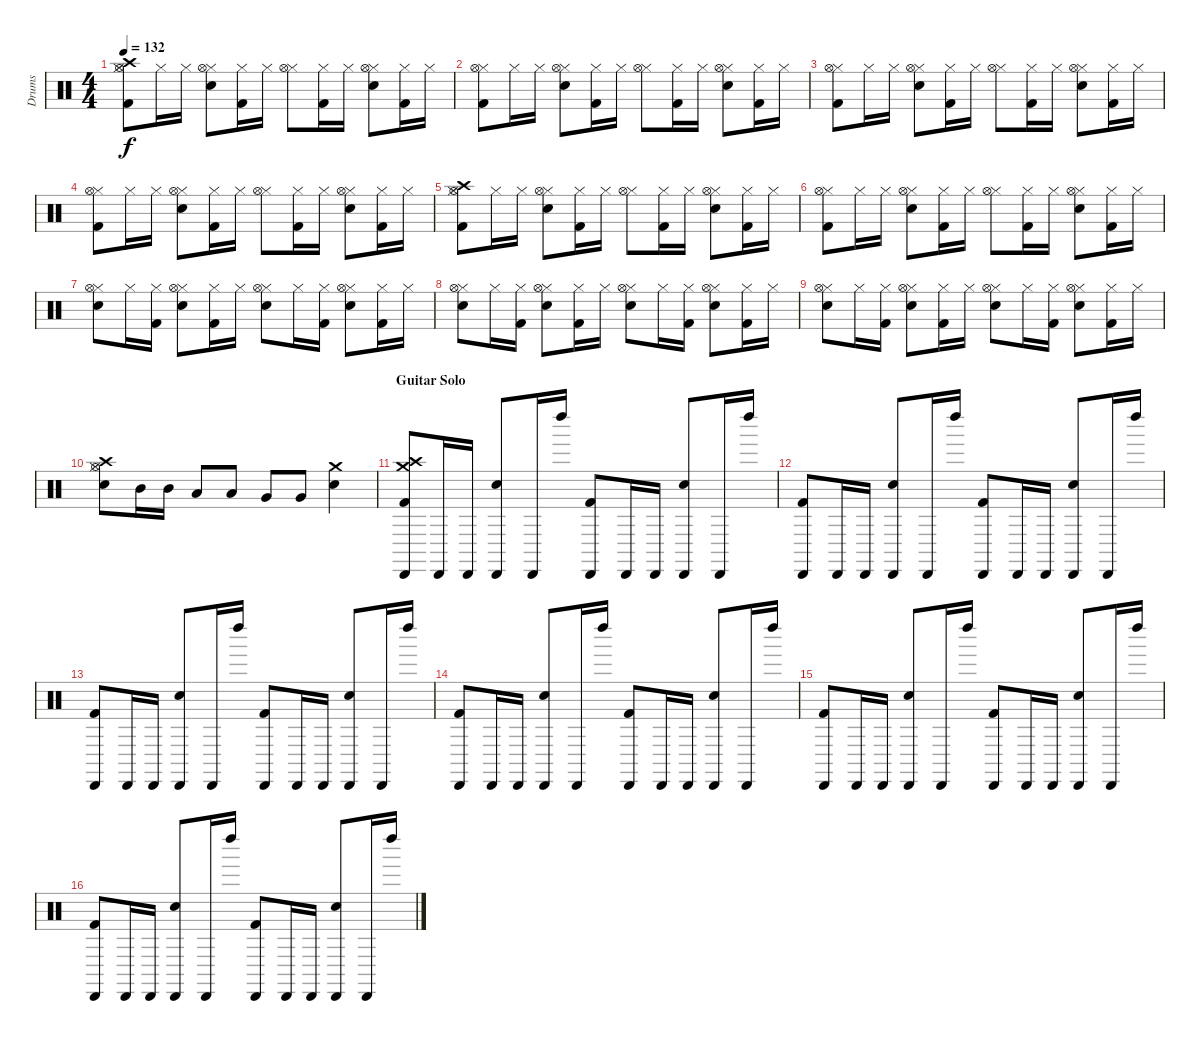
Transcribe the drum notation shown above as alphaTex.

\track ("Drums" "Drums") {instrument percussion}
\staff {score}
\articulation defaults
\ts (4 4)
\tempo 132
\clef neutral
\ks c
("Kick (hit) 2" "Hi-Hat (closed)" "Hi-Hat (open)" "Crash high (hit)").8{dy f} "Hi-Hat (closed)".16 "Hi-Hat (closed)".16 ("Snare (hit) 2" "Hi-Hat (closed)" "Hi-Hat (open)").8 ("Kick (hit) 2" "Hi-Hat (closed)").16 "Hi-Hat (closed)".16 ("Hi-Hat (closed)" "Hi-Hat (open)").8 ("Kick (hit) 2" "Hi-Hat (closed)").16 "Hi-Hat (closed)".16 ("Snare (hit) 2" "Hi-Hat (closed)" "Hi-Hat (open)").8 ("Kick (hit) 2" "Hi-Hat (closed)").16 "Hi-Hat (closed)".16 |
("Kick (hit) 2" "Hi-Hat (closed)" "Hi-Hat (open)").8 "Hi-Hat (closed)".16 "Hi-Hat (closed)".16 ("Snare (hit) 2" "Hi-Hat (closed)" "Hi-Hat (open)").8 ("Kick (hit) 2" "Hi-Hat (closed)").16 "Hi-Hat (closed)".16 ("Hi-Hat (closed)" "Hi-Hat (open)").8 ("Kick (hit) 2" "Hi-Hat (closed)").16 "Hi-Hat (closed)".16 ("Snare (hit) 2" "Hi-Hat (closed)" "Hi-Hat (open)").8 ("Kick (hit) 2" "Hi-Hat (closed)").16 "Hi-Hat (closed)".16 |
("Kick (hit) 2" "Hi-Hat (closed)" "Hi-Hat (open)").8 "Hi-Hat (closed)".16 "Hi-Hat (closed)".16 ("Snare (hit) 2" "Hi-Hat (closed)" "Hi-Hat (open)").8 ("Kick (hit) 2" "Hi-Hat (closed)").16 "Hi-Hat (closed)".16 ("Hi-Hat (closed)" "Hi-Hat (open)").8 ("Kick (hit) 2" "Hi-Hat (closed)").16 "Hi-Hat (closed)".16 ("Snare (hit) 2" "Hi-Hat (closed)" "Hi-Hat (open)").8 ("Kick (hit) 2" "Hi-Hat (closed)").16 "Hi-Hat (closed)".16 |
("Kick (hit) 2" "Hi-Hat (closed)" "Hi-Hat (open)").8 "Hi-Hat (closed)".16 "Hi-Hat (closed)".16 ("Snare (hit) 2" "Hi-Hat (closed)" "Hi-Hat (open)").8 ("Kick (hit) 2" "Hi-Hat (closed)").16 "Hi-Hat (closed)".16 ("Hi-Hat (closed)" "Hi-Hat (open)").8 ("Kick (hit) 2" "Hi-Hat (closed)").16 "Hi-Hat (closed)".16 ("Snare (hit) 2" "Hi-Hat (closed)" "Hi-Hat (open)").8 ("Kick (hit) 2" "Hi-Hat (closed)").16 "Hi-Hat (closed)".16 |
("Kick (hit) 2" "Hi-Hat (closed)" "Hi-Hat (open)" "Crash high (hit)").8 "Hi-Hat (closed)".16 "Hi-Hat (closed)".16 ("Snare (hit) 2" "Hi-Hat (closed)" "Hi-Hat (open)").8 ("Kick (hit) 2" "Hi-Hat (closed)").16 "Hi-Hat (closed)".16 ("Hi-Hat (closed)" "Hi-Hat (open)").8 ("Kick (hit) 2" "Hi-Hat (closed)").16 "Hi-Hat (closed)".16 ("Snare (hit) 2" "Hi-Hat (closed)" "Hi-Hat (open)").8 ("Kick (hit) 2" "Hi-Hat (closed)").16 "Hi-Hat (closed)".16 |
("Kick (hit) 2" "Hi-Hat (closed)" "Hi-Hat (open)").8 "Hi-Hat (closed)".16 "Hi-Hat (closed)".16 ("Snare (hit) 2" "Hi-Hat (closed)" "Hi-Hat (open)").8 ("Kick (hit) 2" "Hi-Hat (closed)").16 "Hi-Hat (closed)".16 ("Hi-Hat (closed)" "Hi-Hat (open)").8 ("Kick (hit) 2" "Hi-Hat (closed)").16 "Hi-Hat (closed)".16 ("Snare (hit) 2" "Hi-Hat (closed)" "Hi-Hat (open)").8 ("Kick (hit) 2" "Hi-Hat (closed)").16 "Hi-Hat (closed)".16 |
("Snare (hit) 2" "Hi-Hat (closed)" "Hi-Hat (open)").8 "Hi-Hat (closed)".16 ("Kick (hit) 2" "Hi-Hat (closed)").16 ("Snare (hit) 2" "Hi-Hat (closed)" "Hi-Hat (open)").8 ("Kick (hit) 2" "Hi-Hat (closed)").16 "Hi-Hat (closed)".16 ("Snare (hit) 2" "Hi-Hat (closed)" "Hi-Hat (open)").8 "Hi-Hat (closed)".16 ("Kick (hit) 2" "Hi-Hat (closed)").16 ("Snare (hit) 2" "Hi-Hat (closed)" "Hi-Hat (open)").8 ("Kick (hit) 2" "Hi-Hat (closed)").16 "Hi-Hat (closed)".16 |
("Snare (hit) 2" "Hi-Hat (closed)" "Hi-Hat (open)").8 "Hi-Hat (closed)".16 ("Kick (hit) 2" "Hi-Hat (closed)").16 ("Snare (hit) 2" "Hi-Hat (closed)" "Hi-Hat (open)").8 ("Kick (hit) 2" "Hi-Hat (closed)").16 "Hi-Hat (closed)".16 ("Snare (hit) 2" "Hi-Hat (closed)" "Hi-Hat (open)").8 "Hi-Hat (closed)".16 ("Kick (hit) 2" "Hi-Hat (closed)").16 ("Snare (hit) 2" "Hi-Hat (closed)" "Hi-Hat (open)").8 ("Kick (hit) 2" "Hi-Hat (closed)").16 "Hi-Hat (closed)".16 |
("Snare (hit) 2" "Hi-Hat (closed)" "Hi-Hat (open)").8 "Hi-Hat (closed)".16 ("Kick (hit) 2" "Hi-Hat (closed)").16 ("Snare (hit) 2" "Hi-Hat (closed)" "Hi-Hat (open)").8 ("Kick (hit) 2" "Hi-Hat (closed)").16 "Hi-Hat (closed)".16 ("Snare (hit) 2" "Hi-Hat (closed)" "Hi-Hat (open)").8 "Hi-Hat (closed)".16 ("Kick (hit) 2" "Hi-Hat (closed)").16 ("Snare (hit) 2" "Hi-Hat (closed)" "Hi-Hat (open)").8 ("Kick (hit) 2" "Hi-Hat (closed)").16 "Hi-Hat (closed)".16 |
("Snare (hit) 2" "Hi-Hat (closed)" "Hi-Hat (open)" "Crash high (hit)").8 "Mid Tom (hit)".16 "Mid Tom (hit)".16 "Low Tom (hit)".8 "Low Tom (hit)".8 "Very Low Tom (hit)".8 "Very Low Tom (hit)".8 ("Snare (hit) 2" "Crash medium (hit)").4 |
\section ("" "Guitar Solo")
("Kick (hit) 2" "Cabasa (hit)" "Crash medium (hit)" "Crash high (hit)").8 "Cabasa (hit)".16 "Cabasa (hit)".16 ("Snare (hit) 2" "Cabasa (hit)").8 "Cabasa (hit)".16 "Left Maraca (hit)".16 ("Kick (hit) 2" "Cabasa (hit)").8 "Cabasa (hit)".16 "Cabasa (hit)".16 ("Snare (hit) 2" "Cabasa (hit)").8 "Cabasa (hit)".16 "Left Maraca (hit)".16 |
("Kick (hit) 2" "Cabasa (hit)").8 "Cabasa (hit)".16 "Cabasa (hit)".16 ("Snare (hit) 2" "Cabasa (hit)").8 "Cabasa (hit)".16 "Left Maraca (hit)".16 ("Kick (hit) 2" "Cabasa (hit)").8 "Cabasa (hit)".16 "Cabasa (hit)".16 ("Snare (hit) 2" "Cabasa (hit)").8 "Cabasa (hit)".16 "Left Maraca (hit)".16 |
("Kick (hit) 2" "Cabasa (hit)").8 "Cabasa (hit)".16 "Cabasa (hit)".16 ("Snare (hit) 2" "Cabasa (hit)").8 "Cabasa (hit)".16 "Left Maraca (hit)".16 ("Kick (hit) 2" "Cabasa (hit)").8 "Cabasa (hit)".16 "Cabasa (hit)".16 ("Snare (hit) 2" "Cabasa (hit)").8 "Cabasa (hit)".16 "Left Maraca (hit)".16 |
("Kick (hit) 2" "Cabasa (hit)").8 "Cabasa (hit)".16 "Cabasa (hit)".16 ("Snare (hit) 2" "Cabasa (hit)").8 "Cabasa (hit)".16 "Left Maraca (hit)".16 ("Kick (hit) 2" "Cabasa (hit)").8 "Cabasa (hit)".16 "Cabasa (hit)".16 ("Snare (hit) 2" "Cabasa (hit)").8 "Cabasa (hit)".16 "Left Maraca (hit)".16 |
("Kick (hit) 2" "Cabasa (hit)").8 "Cabasa (hit)".16 "Cabasa (hit)".16 ("Snare (hit) 2" "Cabasa (hit)").8 "Cabasa (hit)".16 "Left Maraca (hit)".16 ("Kick (hit) 2" "Cabasa (hit)").8 "Cabasa (hit)".16 "Cabasa (hit)".16 ("Snare (hit) 2" "Cabasa (hit)").8 "Cabasa (hit)".16 "Left Maraca (hit)".16 |
("Kick (hit) 2" "Cabasa (hit)").8 "Cabasa (hit)".16 "Cabasa (hit)".16 ("Snare (hit) 2" "Cabasa (hit)").8 "Cabasa (hit)".16 "Left Maraca (hit)".16 ("Kick (hit) 2" "Cabasa (hit)").8 "Cabasa (hit)".16 "Cabasa (hit)".16 ("Snare (hit) 2" "Cabasa (hit)").8 "Cabasa (hit)".16 "Left Maraca (hit)".16
